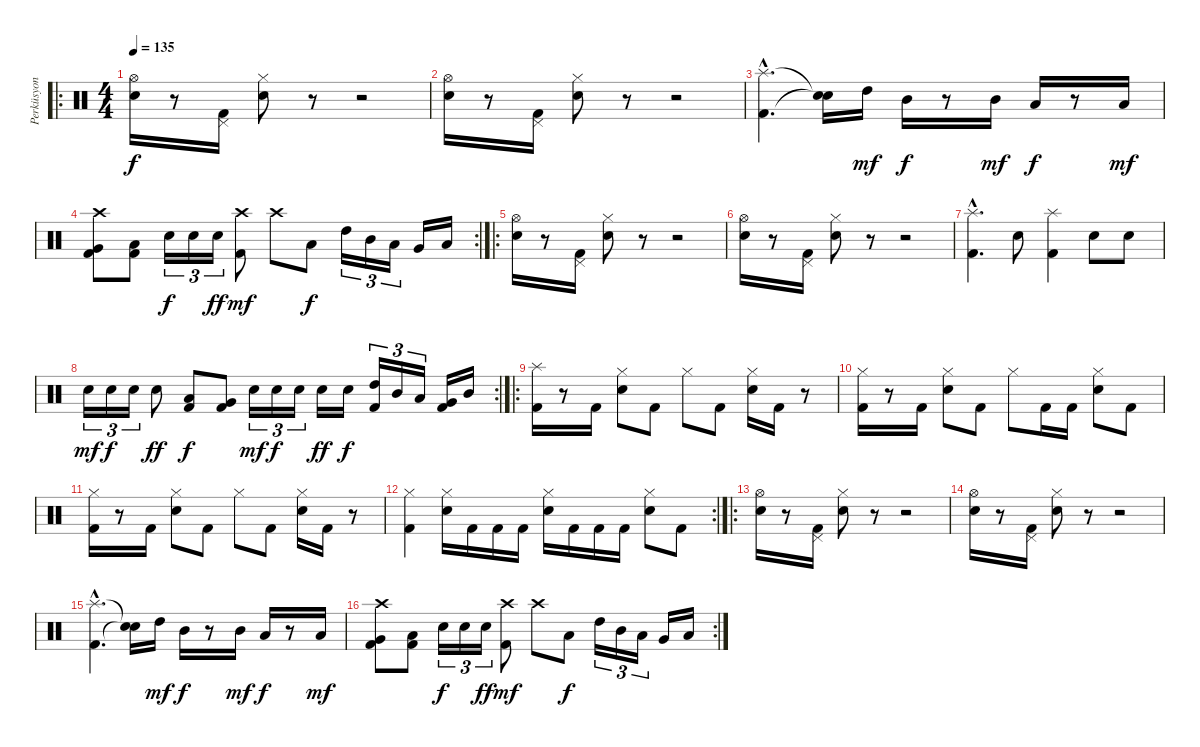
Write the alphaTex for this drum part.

\track ("Perküsyon" "Perküsyon") {instrument percussion}
\staff {score}
\articulation defaults
\ro
\ts (4 4)
\tempo 135
\clef neutral
\ks c
("Snare (hit) 2" "Hi-Hat (open)").16{dy f} r.8 ("Kick (hit) 2" "Pedal Hi-Hat (hit)").16 ("Snare (hit) 2" "Hi-Hat (closed)").8 r.8 r.2 |
("Snare (hit) 2" "Hi-Hat (open)").16 r.8 ("Kick (hit) 2" "Pedal Hi-Hat (hit)").16 ("Snare (hit) 2" "Hi-Hat (closed)").8 r.8 r.2 |
("Kick (hit) 2"{hac} "Splash (hit)"{hac}).4{d} ("Snare (hit)"{t} "Snare (hit)"{t}).16 "High Tom (hit)".16{dy mf} "Mid Tom (hit)".16{dy f} r.8 "Mid Tom (hit)".16{dy mf} "Low Tom (hit)".16{dy f} r.8 "Low Tom (hit)".16{dy mf} |
\rc 2
("Kick (hit) 2" "Very Low Tom (hit)" "Crash high (hit)").8 ("Kick (hit) 2" "Low Tom (hit)").8 "Snare (hit) 2".16{tu (3 2) dy f} "Snare (hit) 2".16{tu (3 2)} "Snare (hit) 2".16{tu (3 2) dy ff} ("Kick (hit) 2" "Crash high (hit)").8{dy mf} "Crash high (hit)".8 "Low Tom (hit)".8{dy f} "High Tom (hit)".16{tu (3 2)} "Mid Tom (hit)".16{tu (3 2)} "Low Tom (hit)".16{tu (3 2)} "Very Low Tom (hit)".16 "Low Floor Tom (hit)".16 |
\ro
("Snare (hit) 2" "Hi-Hat (open)").16 r.8 ("Kick (hit) 2" "Pedal Hi-Hat (hit)").16 ("Snare (hit) 2" "Hi-Hat (closed)").8 r.8 r.2 |
("Snare (hit) 2" "Hi-Hat (open)").16 r.8 ("Kick (hit) 2" "Pedal Hi-Hat (hit)").16 ("Snare (hit) 2" "Hi-Hat (closed)").8 r.8 r.2 |
("Kick (hit) 2"{hac} "Splash (hit)"{hac}).4{d} "Snare (hit) 2".8 ("Kick (hit) 2" "Splash (hit)").4 "Snare (hit) 2".8 "Snare (hit) 2".8 |
\rc 2 "Snare (hit) 2".16{tu (3 2) dy mf} "Snare (hit) 2".16{tu (3 2) dy f} "Snare (hit) 2".16{tu (3 2)} "Snare (hit) 2".8{dy ff}
("Kick (hit) 2" "Low Tom (hit)").8{dy f} ("Kick (hit) 2" "Very Low Tom (hit)").8 "Snare (hit) 2".16{tu (3 2) dy mf} "Snare (hit) 2".16{tu (3 2) dy f} "Snare (hit) 2".16{tu (3 2)} "Snare (hit) 2".16{dy ff} "Snare (hit) 2".16{dy f} ("Kick (hit) 2" "High Tom (hit)").16{tu (3 2)} "Mid Tom (hit)".16{tu (3 2)} "Low Tom (hit)".16{tu (3 2)} ("Kick (hit) 2" "Very Low Tom (hit)").16 "Mid Tom (hit)".16 |
\ro
("Kick (hit) 2" "Splash (hit)").16 r.8 "Kick (hit) 2".16 ("Snare (hit) 2" "Hi-Hat (closed)").8 "Kick (hit) 2".8 "Hi-Hat (closed)".8 "Kick (hit) 2".8 ("Snare (hit) 2" "Hi-Hat (closed)").16 "Kick (hit) 2".16 r.8 |
("Kick (hit) 2" "Hi-Hat (closed)").16 r.8 "Kick (hit) 2".16 ("Snare (hit) 2" "Hi-Hat (closed)").8 "Kick (hit) 2".8 "Hi-Hat (closed)".8 "Kick (hit) 2".16 "Kick (hit) 2".16 ("Snare (hit) 2" "Hi-Hat (closed)").8 "Kick (hit) 2".8 |
("Kick (hit) 2" "Hi-Hat (closed)").16 r.8 "Kick (hit) 2".16 ("Snare (hit) 2" "Hi-Hat (closed)").8 "Kick (hit) 2".8 "Hi-Hat (closed)".8 "Kick (hit) 2".8 ("Snare (hit) 2" "Hi-Hat (closed)").16 "Kick (hit) 2".16 r.8 |
\rc 2
("Kick (hit) 2" "Hi-Hat (closed)").4 ("Snare (hit) 2" "Hi-Hat (closed)").16 "Kick (hit) 2".16 "Kick (hit) 2".16 "Kick (hit) 2".16 ("Snare (hit) 2" "Hi-Hat (closed)").16 "Kick (hit) 2".16 "Kick (hit) 2".16 "Kick (hit) 2".16 ("Snare (hit) 2" "Hi-Hat (closed)").8 "Kick (hit) 2".8 |
\ro
("Snare (hit) 2" "Hi-Hat (open)").16 r.8 ("Kick (hit) 2" "Pedal Hi-Hat (hit)").16 ("Snare (hit) 2" "Hi-Hat (closed)").8 r.8 r.2 |
("Snare (hit) 2" "Hi-Hat (open)").16 r.8 ("Kick (hit) 2" "Pedal Hi-Hat (hit)").16 ("Snare (hit) 2" "Hi-Hat (closed)").8 r.8 r.2 |
("Kick (hit) 2"{hac} "Splash (hit)"{hac}).4{d} ("Snare (hit)"{t} "Snare (hit)"{t}).16 "High Tom (hit)".16{dy mf} "Mid Tom (hit)".16{dy f} r.8 "Mid Tom (hit)".16{dy mf} "Low Tom (hit)".16{dy f} r.8 "Low Tom (hit)".16{dy mf} |
\rc 2
("Kick (hit) 2" "Very Low Tom (hit)" "Crash high (hit)").8 ("Kick (hit) 2" "Low Tom (hit)").8 "Snare (hit) 2".16{tu (3 2) dy f} "Snare (hit) 2".16{tu (3 2)} "Snare (hit) 2".16{tu (3 2) dy ff} ("Kick (hit) 2" "Crash high (hit)").8{dy mf} "Crash high (hit)".8 "Low Tom (hit)".8{dy f} "High Tom (hit)".16{tu (3 2)} "Mid Tom (hit)".16{tu (3 2)} "Low Tom (hit)".16{tu (3 2)} "Very Low Tom (hit)".16 "Low Floor Tom (hit)".16
